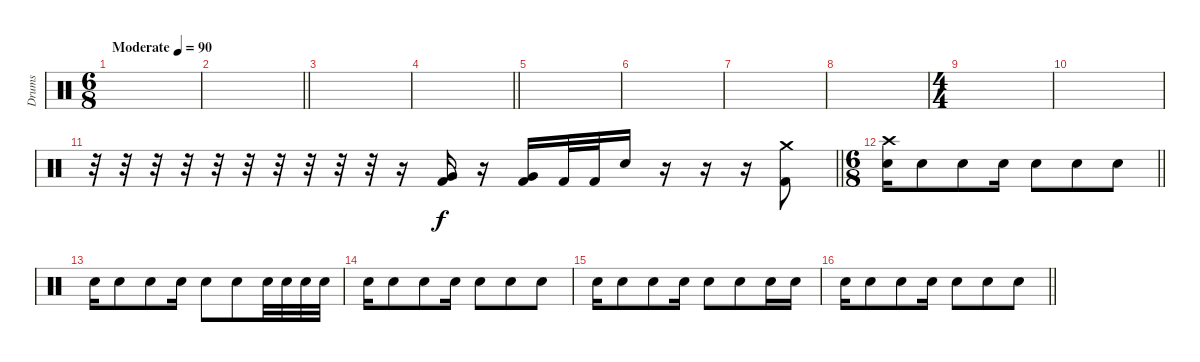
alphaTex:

\track ("Drums" "Drums") {instrument percussion}
\staff {score}
\articulation defaults
\ts (6 8)
\section ("" "")
\tempo (90 "Moderate")
\clef neutral
\ks c
|
\barLineRight lightlight
|
|
\barLineRight lightlight
|
|
|
|
|
\ts (4 4)
|
|
\barLineRight lightlight
r.32 r.32 r.32 r.32 r.32 r.32 r.32 r.32 r.32 r.32 r.16 ("Kick (hit) 2" "Very Low Tom (hit)").16 r.16 ("Kick (hit) 2" "Very Low Tom (hit)").16 "Kick (hit) 2".32 "Kick (hit) 2".32 "Electric Snare (hit)".16 r.16 r.16 r.16 ("Crash medium (hit)" "Kick (hit) 2").8 |
\ts (6 8)
\barLineRight lightlight
("Electric Snare (hit)" "Crash high (hit)").16 "Electric Snare (hit)".8 "Electric Snare (hit)".8 "Electric Snare (hit)".16 "Electric Snare (hit)".8 "Electric Snare (hit)".8 "Electric Snare (hit)".8 |
\section ("" "")
"Electric Snare (hit)".16 "Electric Snare (hit)".8 "Electric Snare (hit)".8 "Electric Snare (hit)".16 "Electric Snare (hit)".8 "Electric Snare (hit)".8 "Electric Snare (hit)".32 "Electric Snare (hit)".32 "Electric Snare (hit)".32 "Electric Snare (hit)".32 |
"Electric Snare (hit)".16 "Electric Snare (hit)".8 "Electric Snare (hit)".8 "Electric Snare (hit)".16 "Electric Snare (hit)".8 "Electric Snare (hit)".8 "Electric Snare (hit)".8 |
"Electric Snare (hit)".16 "Electric Snare (hit)".8 "Electric Snare (hit)".8 "Electric Snare (hit)".16 "Electric Snare (hit)".8 "Electric Snare (hit)".8 "Electric Snare (hit)".16 "Electric Snare (hit)".16 |
\barLineRight lightlight "Electric Snare (hit)".16 "Electric Snare (hit)".8 "Electric Snare (hit)".8 "Electric Snare (hit)".16 "Electric Snare (hit)".8 "Electric Snare (hit)".8 "Electric Snare (hit)".8
